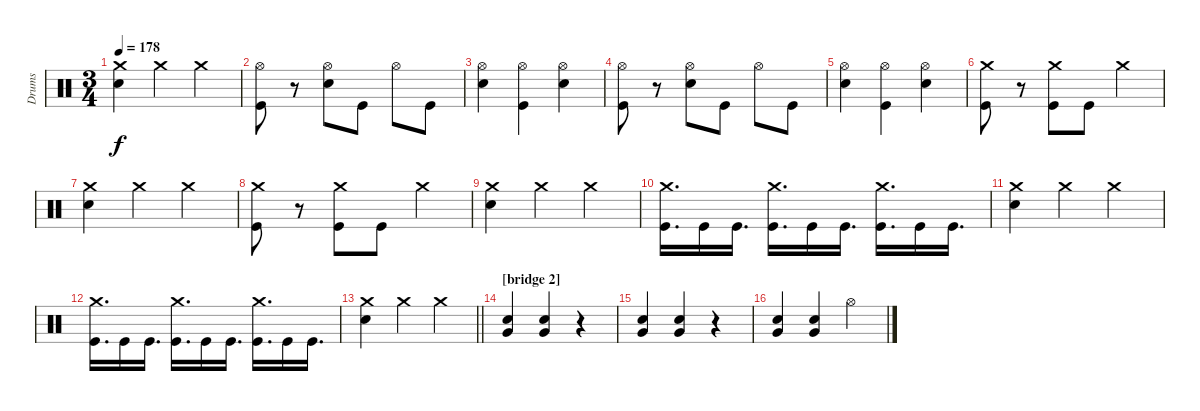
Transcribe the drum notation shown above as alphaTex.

\track ("Drums" "Drums") {instrument percussion}
\staff {score}
\articulation defaults
\ts (3 4)
\tempo 178
\clef neutral
\ks c
("Crash medium (hit)" "Snare (hit) 2").4{dy f} "Crash medium (hit)".4 "Crash medium (hit)".4 |
("Hi-Hat (open)" "Kick (hit)").8 r.8 ("Hi-Hat (open)" "Snare (hit) 2").8 "Kick (hit)".8 "Hi-Hat (open)".8 "Kick (hit)".8 |
("Hi-Hat (open)" "Snare (hit) 2").4 ("Hi-Hat (open)" "Kick (hit)").4 ("Hi-Hat (open)" "Snare (hit) 2").4 |
("Hi-Hat (open)" "Kick (hit)").8 r.8 ("Hi-Hat (open)" "Snare (hit) 2").8 "Kick (hit)".8 "Hi-Hat (open)".8 "Kick (hit)".8 |
("Hi-Hat (open)" "Snare (hit) 2").4 ("Hi-Hat (open)" "Kick (hit)").4 ("Hi-Hat (open)" "Snare (hit) 2").4 |
("Crash medium (hit)" "Kick (hit)").8 r.8 ("Crash medium (hit)" "Kick (hit)").8 "Kick (hit)".8 "Crash medium (hit)".4 |
("Crash medium (hit)" "Snare (hit) 2").4 "Crash medium (hit)".4 "Crash medium (hit)".4 |
("Crash medium (hit)" "Kick (hit)").8 r.8 ("Crash medium (hit)" "Kick (hit)").8 "Kick (hit)".8 "Crash medium (hit)".4 |
("Crash medium (hit)" "Snare (hit) 2").4 "Crash medium (hit)".4 "Crash medium (hit)".4 |
("Kick (hit)" "Crash medium (hit)").16{d} "Kick (hit)".16 "Kick (hit)".16{d} ("Kick (hit)" "Crash medium (hit)").16{d} "Kick (hit)".16 "Kick (hit)".16{d} ("Kick (hit)" "Crash medium (hit)").16{d} "Kick (hit)".16 "Kick (hit)".16{d} |
("Snare (hit) 2" "Crash medium (hit)").4 "Crash medium (hit)".4 "Crash medium (hit)".4 |
("Kick (hit)" "Crash medium (hit)").16{d} "Kick (hit)".16 "Kick (hit)".16{d} ("Kick (hit)" "Crash medium (hit)").16{d} "Kick (hit)".16 "Kick (hit)".16{d} ("Kick (hit)" "Crash medium (hit)").16{d} "Kick (hit)".16 "Kick (hit)".16{d} |
\barLineRight lightlight
("Snare (hit) 2" "Crash medium (hit)").4 "Crash medium (hit)".4 "Crash medium (hit)".4 |
\section ("" "[bridge 2]")
("Very Low Tom (hit)" "Snare (hit) 2").4 ("Very Low Tom (hit)" "Snare (hit) 2").4 r.4 |
("Very Low Tom (hit)" "Snare (hit) 2").4 ("Very Low Tom (hit)" "Snare (hit) 2").4 r.4 |
("Very Low Tom (hit)" "Snare (hit) 2").4 ("Very Low Tom (hit)" "Snare (hit) 2").4 "Hi-Hat (open)".4
